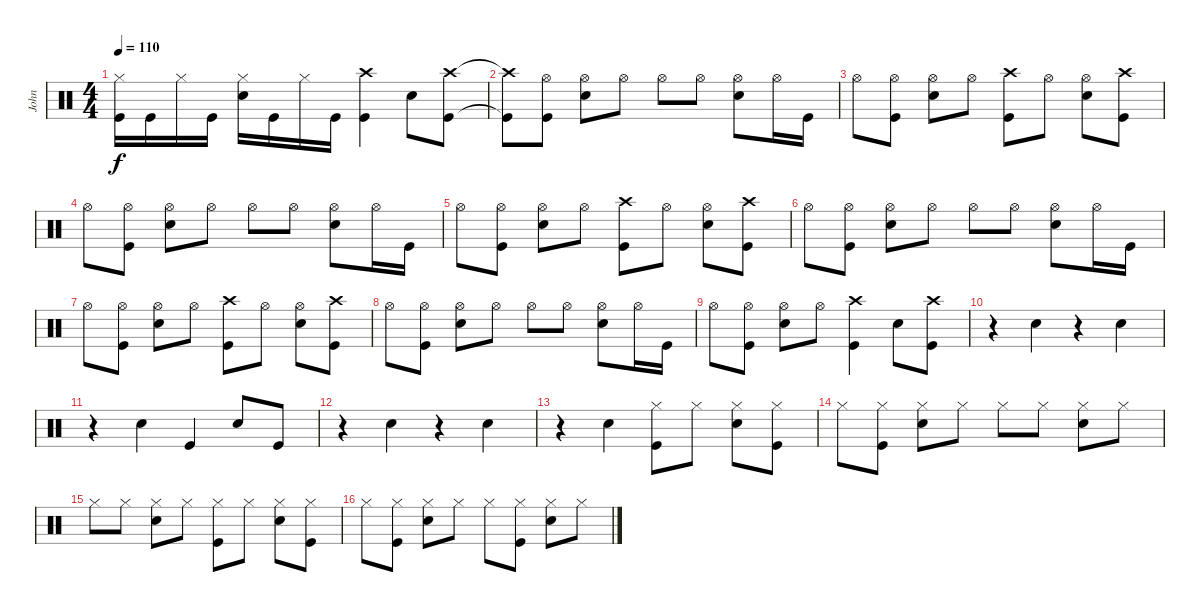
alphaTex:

\track ("John" "John") {instrument percussion}
\staff {score}
\articulation defaults
\ts (4 4)
\tempo 110
\clef neutral
\ks c
("Hi-Hat (closed)" "Kick (hit)").16{dy f} "Kick (hit)".16 "Hi-Hat (closed)".16 "Kick (hit)".16 ("Hi-Hat (closed)" "Snare (hit) 2").16 "Kick (hit)".16 "Hi-Hat (closed)".16 "Kick (hit)".16 ("Crash high (hit)" "Kick (hit)").4 "Snare (hit) 2".8 ("Crash high (hit)" "Kick (hit)").8 |
("Crash high (hit)"{t} "Kick (hit)"{t}).8 ("Hi-Hat (open)" "Kick (hit)").8 ("Hi-Hat (open)" "Snare (hit) 2").8 "Hi-Hat (open)".8 "Hi-Hat (open)".8 "Hi-Hat (open)".8 ("Hi-Hat (open)" "Snare (hit) 2").8 "Hi-Hat (open)".16 "Kick (hit)".16 |
"Hi-Hat (open)".8 ("Hi-Hat (open)" "Kick (hit)").8 ("Hi-Hat (open)" "Snare (hit) 2").8 "Hi-Hat (open)".8 ("Crash high (hit)" "Kick (hit)").8 "Hi-Hat (open)".8 ("Hi-Hat (open)" "Snare (hit) 2").8 ("Crash high (hit)" "Kick (hit)").8 |
"Hi-Hat (open)".8 ("Hi-Hat (open)" "Kick (hit)").8 ("Hi-Hat (open)" "Snare (hit) 2").8 "Hi-Hat (open)".8 "Hi-Hat (open)".8 "Hi-Hat (open)".8 ("Hi-Hat (open)" "Snare (hit) 2").8 "Hi-Hat (open)".16 "Kick (hit)".16 |
"Hi-Hat (open)".8 ("Hi-Hat (open)" "Kick (hit)").8 ("Hi-Hat (open)" "Snare (hit) 2").8 "Hi-Hat (open)".8 ("Crash high (hit)" "Kick (hit)").8 "Hi-Hat (open)".8 ("Hi-Hat (open)" "Snare (hit) 2").8 ("Crash high (hit)" "Kick (hit)").8 |
"Hi-Hat (open)".8 ("Hi-Hat (open)" "Kick (hit)").8 ("Hi-Hat (open)" "Snare (hit) 2").8 "Hi-Hat (open)".8 "Hi-Hat (open)".8 "Hi-Hat (open)".8 ("Hi-Hat (open)" "Snare (hit) 2").8 "Hi-Hat (open)".16 "Kick (hit)".16 |
"Hi-Hat (open)".8 ("Hi-Hat (open)" "Kick (hit)").8 ("Hi-Hat (open)" "Snare (hit) 2").8 "Hi-Hat (open)".8 ("Crash high (hit)" "Kick (hit)").8 "Hi-Hat (open)".8 ("Hi-Hat (open)" "Snare (hit) 2").8 ("Crash high (hit)" "Kick (hit)").8 |
"Hi-Hat (open)".8 ("Hi-Hat (open)" "Kick (hit)").8 ("Hi-Hat (open)" "Snare (hit) 2").8 "Hi-Hat (open)".8 "Hi-Hat (open)".8 "Hi-Hat (open)".8 ("Hi-Hat (open)" "Snare (hit) 2").8 "Hi-Hat (open)".16 "Kick (hit)".16 |
"Hi-Hat (open)".8 ("Hi-Hat (open)" "Kick (hit)").8 ("Hi-Hat (open)" "Snare (hit) 2").8 "Hi-Hat (open)".8 ("Crash high (hit)" "Kick (hit)").4 "Snare (hit) 2".8 ("Crash high (hit)" "Kick (hit)").8 |
r.4 "Snare (hit) 2".4 r.4 "Snare (hit) 2".4 |
r.4 "Snare (hit) 2".4 "Kick (hit)".4 "Snare (hit) 2".8 "Kick (hit)".8 |
r.4 "Snare (hit) 2".4 r.4 "Snare (hit) 2".4 |
r.4 "Snare (hit) 2".4 ("Hi-Hat (closed)" "Kick (hit)").8 "Hi-Hat (closed)".8 ("Hi-Hat (closed)" "Snare (hit) 2").8 ("Hi-Hat (closed)" "Kick (hit)").8 |
"Hi-Hat (closed)".8 ("Hi-Hat (closed)" "Kick (hit)").8 ("Snare (hit) 2" "Hi-Hat (closed)").8 "Hi-Hat (closed)".8 "Hi-Hat (closed)".8 "Hi-Hat (closed)".8 ("Hi-Hat (closed)" "Snare (hit) 2").8 "Hi-Hat (closed)".8 |
"Hi-Hat (closed)".8 "Hi-Hat (closed)".8 ("Hi-Hat (closed)" "Snare (hit) 2").8 "Hi-Hat (closed)".8 ("Hi-Hat (closed)" "Kick (hit)").8 "Hi-Hat (closed)".8 ("Hi-Hat (closed)" "Snare (hit) 2").8 ("Hi-Hat (closed)" "Kick (hit)").8 |
"Hi-Hat (closed)".8 ("Hi-Hat (closed)" "Kick (hit)").8 ("Snare (hit) 2" "Hi-Hat (closed)").8 "Hi-Hat (closed)".8 "Hi-Hat (closed)".8 ("Hi-Hat (closed)" "Kick (hit)").8 ("Hi-Hat (closed)" "Snare (hit) 2").8 "Hi-Hat (closed)".8
